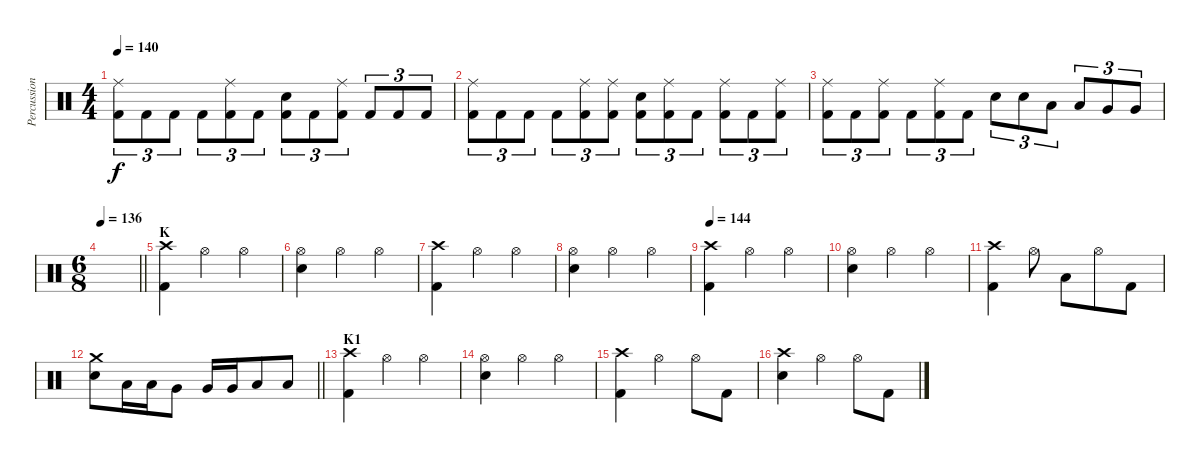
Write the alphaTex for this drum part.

\track ("Percussion" "Percussion") {instrument percussion}
\staff {score}
\articulation defaults
\ts (4 4)
\tempo 140
\clef neutral
\ks c
("Ride (middle)" "Kick (hit) 2").8{tu (3 2) dy f} "Kick (hit) 2".8{tu (3 2)} "Kick (hit) 2".8{tu (3 2)} "Kick (hit) 2".8{tu (3 2)} ("Ride (middle)" "Kick (hit) 2").8{tu (3 2)} "Kick (hit) 2".8{tu (3 2)} ("Electric Snare (hit)" "Kick (hit) 2").8{tu (3 2)} "Kick (hit) 2".8{tu (3 2)} ("Ride (middle)" "Kick (hit) 2").8{tu (3 2)} "Kick (hit) 2".8{tu (3 2)} "Kick (hit) 2".8{tu (3 2)} "Kick (hit) 2".8{tu (3 2)} |
("Ride (middle)" "Kick (hit) 2").8{tu (3 2)} "Kick (hit) 2".8{tu (3 2)} "Kick (hit) 2".8{tu (3 2)} "Kick (hit) 2".8{tu (3 2)} ("Ride (middle)" "Kick (hit) 2").8{tu (3 2)} ("Ride (middle)" "Kick (hit) 2").8{tu (3 2)} ("Electric Snare (hit)" "Kick (hit) 2").8{tu (3 2)} ("Ride (middle)" "Kick (hit) 2").8{tu (3 2)} "Kick (hit) 2".8{tu (3 2)} ("Ride (middle)" "Kick (hit) 2").8{tu (3 2)} "Kick (hit) 2".8{tu (3 2)} ("Ride (middle)" "Kick (hit) 2").8{tu (3 2)} |
("Ride (middle)" "Kick (hit) 2").8{tu (3 2)} "Kick (hit) 2".8{tu (3 2)} ("Ride (middle)" "Kick (hit) 2").8{tu (3 2)} "Kick (hit) 2".8{tu (3 2)} ("Ride (middle)" "Kick (hit) 2").8{tu (3 2)} "Kick (hit) 2".8{tu (3 2)} "Electric Snare (hit)".8{tu (3 2)} "Electric Snare (hit)".8{tu (3 2)} "Low Tom (hit)".8{tu (3 2)} "Low Tom (hit)".8{tu (3 2)} "Very Low Tom (hit)".8{tu (3 2)} "Very Low Tom (hit)".8{tu (3 2)} |
\ts (6 8)
\tempo 136
\barLineRight lightlight
|
\section ("" "K")
("Crash high (hit)" "Kick (hit) 2").4 "Hi-Hat (open)".4 "Hi-Hat (open)".4 |
("Hi-Hat (open)" "Electric Snare (hit)").4 "Hi-Hat (open)".4 "Hi-Hat (open)".4 |
("Crash high (hit)" "Kick (hit) 2").4 "Hi-Hat (open)".4 "Hi-Hat (open)".4 |
("Hi-Hat (open)" "Electric Snare (hit)").4 "Hi-Hat (open)".4 "Hi-Hat (open)".4 |
\tempo 144
("Crash high (hit)" "Kick (hit) 2").4 "Hi-Hat (open)".4 "Hi-Hat (open)".4 |
("Hi-Hat (open)" "Electric Snare (hit)").4 "Hi-Hat (open)".4 "Hi-Hat (open)".4 |
("Crash high (hit)" "Kick (hit) 2").4 "Hi-Hat (open)".8 "Low Tom (hit)".8 "Hi-Hat (open)".8 "Kick (hit) 2".8 |
\barLineRight lightlight
("Crash medium (hit)" "Electric Snare (hit)").8 "Low Tom (hit)".16 "Low Tom (hit)".16 "Very Low Tom (hit)".8 "Very Low Tom (hit)".16 "Very Low Tom (hit)".16 "Low Floor Tom (hit)".8 "Low Floor Tom (hit)".8 |
\section ("" "K1")
("Crash high (hit)" "Kick (hit) 2").4 "Hi-Hat (open)".4 "Hi-Hat (open)".4 |
("Hi-Hat (open)" "Electric Snare (hit)").4 "Hi-Hat (open)".4 "Hi-Hat (open)".4 |
("Crash high (hit)" "Kick (hit) 2").4 "Hi-Hat (open)".4 "Hi-Hat (open)".8 "Kick (hit) 2".8 |
("Crash high (hit)" "Electric Snare (hit)").4 "Hi-Hat (open)".4 "Hi-Hat (open)".8 "Kick (hit) 2".8
